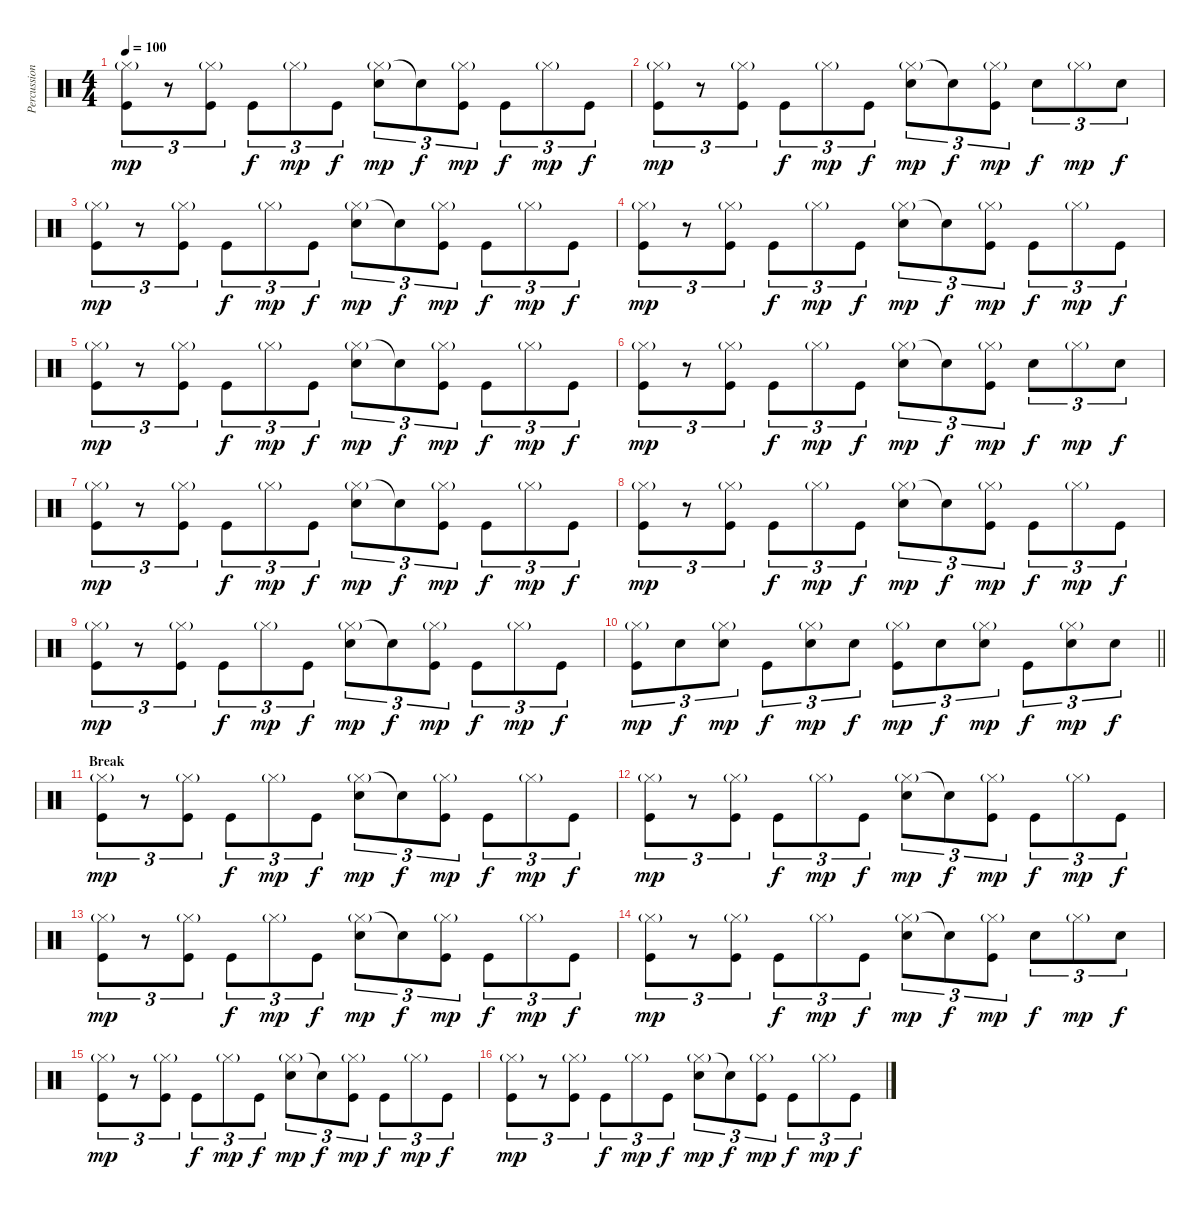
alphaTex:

\track ("Percussions" "Percussion") {instrument percussion}
\staff {score}
\articulation defaults
\ts (4 4)
\tempo 100
\clef neutral
\ks c
("Hi-Hat (closed)"{g} "Kick (hit)").8{tu (3 2) dy mp} r.8{tu (3 2)} ("Hi-Hat (closed)"{g} "Kick (hit)").8{tu (3 2)} "Kick (hit)".8{tu (3 2) dy f} "Hi-Hat (closed)"{g}.8{tu (3 2) dy mp} "Kick (hit)".8{tu (3 2) dy f} ("Hi-Hat (closed)"{g} "Electric Snare (hit)").8{tu (3 2) dy mp} "Snare (hit)"{t}.8{tu (3 2) dy f} ("Hi-Hat (closed)"{g} "Kick (hit)").8{tu (3 2) dy mp} "Kick (hit)".8{tu (3 2) dy f} "Hi-Hat (closed)"{g}.8{tu (3 2) dy mp} "Kick (hit)".8{tu (3 2) dy f} |
("Hi-Hat (closed)"{g} "Kick (hit)").8{tu (3 2) dy mp} r.8{tu (3 2)} ("Hi-Hat (closed)"{g} "Kick (hit)").8{tu (3 2)} "Kick (hit)".8{tu (3 2) dy f} "Hi-Hat (closed)"{g}.8{tu (3 2) dy mp} "Kick (hit)".8{tu (3 2) dy f} ("Hi-Hat (closed)"{g} "Electric Snare (hit)").8{tu (3 2) dy mp} "Snare (hit)"{t}.8{tu (3 2) dy f} ("Hi-Hat (closed)"{g} "Kick (hit)").8{tu (3 2) dy mp} "Electric Snare (hit)".8{tu (3 2) dy f} "Hi-Hat (closed)"{g}.8{tu (3 2) dy mp} "Electric Snare (hit)".8{tu (3 2) dy f} |
("Hi-Hat (closed)"{g} "Kick (hit)").8{tu (3 2) dy mp} r.8{tu (3 2)} ("Hi-Hat (closed)"{g} "Kick (hit)").8{tu (3 2)} "Kick (hit)".8{tu (3 2) dy f} "Hi-Hat (closed)"{g}.8{tu (3 2) dy mp} "Kick (hit)".8{tu (3 2) dy f} ("Hi-Hat (closed)"{g} "Electric Snare (hit)").8{tu (3 2) dy mp} "Snare (hit)"{t}.8{tu (3 2) dy f} ("Hi-Hat (closed)"{g} "Kick (hit)").8{tu (3 2) dy mp} "Kick (hit)".8{tu (3 2) dy f} "Hi-Hat (closed)"{g}.8{tu (3 2) dy mp} "Kick (hit)".8{tu (3 2) dy f} |
("Hi-Hat (closed)"{g} "Kick (hit)").8{tu (3 2) dy mp} r.8{tu (3 2)} ("Hi-Hat (closed)"{g} "Kick (hit)").8{tu (3 2)} "Kick (hit)".8{tu (3 2) dy f} "Hi-Hat (closed)"{g}.8{tu (3 2) dy mp} "Kick (hit)".8{tu (3 2) dy f} ("Hi-Hat (closed)"{g} "Electric Snare (hit)").8{tu (3 2) dy mp} "Snare (hit)"{t}.8{tu (3 2) dy f} ("Hi-Hat (closed)"{g} "Kick (hit)").8{tu (3 2) dy mp} "Kick (hit)".8{tu (3 2) dy f} "Hi-Hat (closed)"{g}.8{tu (3 2) dy mp} "Kick (hit)".8{tu (3 2) dy f} |
("Hi-Hat (closed)"{g} "Kick (hit)").8{tu (3 2) dy mp} r.8{tu (3 2)} ("Hi-Hat (closed)"{g} "Kick (hit)").8{tu (3 2)} "Kick (hit)".8{tu (3 2) dy f} "Hi-Hat (closed)"{g}.8{tu (3 2) dy mp} "Kick (hit)".8{tu (3 2) dy f} ("Hi-Hat (closed)"{g} "Electric Snare (hit)").8{tu (3 2) dy mp} "Snare (hit)"{t}.8{tu (3 2) dy f} ("Hi-Hat (closed)"{g} "Kick (hit)").8{tu (3 2) dy mp} "Kick (hit)".8{tu (3 2) dy f} "Hi-Hat (closed)"{g}.8{tu (3 2) dy mp} "Kick (hit)".8{tu (3 2) dy f} |
("Hi-Hat (closed)"{g} "Kick (hit)").8{tu (3 2) dy mp} r.8{tu (3 2)} ("Hi-Hat (closed)"{g} "Kick (hit)").8{tu (3 2)} "Kick (hit)".8{tu (3 2) dy f} "Hi-Hat (closed)"{g}.8{tu (3 2) dy mp} "Kick (hit)".8{tu (3 2) dy f} ("Hi-Hat (closed)"{g} "Electric Snare (hit)").8{tu (3 2) dy mp} "Snare (hit)"{t}.8{tu (3 2) dy f} ("Hi-Hat (closed)"{g} "Kick (hit)").8{tu (3 2) dy mp} "Electric Snare (hit)".8{tu (3 2) dy f} "Hi-Hat (closed)"{g}.8{tu (3 2) dy mp} "Electric Snare (hit)".8{tu (3 2) dy f} |
("Hi-Hat (closed)"{g} "Kick (hit)").8{tu (3 2) dy mp} r.8{tu (3 2)} ("Hi-Hat (closed)"{g} "Kick (hit)").8{tu (3 2)} "Kick (hit)".8{tu (3 2) dy f} "Hi-Hat (closed)"{g}.8{tu (3 2) dy mp} "Kick (hit)".8{tu (3 2) dy f} ("Hi-Hat (closed)"{g} "Electric Snare (hit)").8{tu (3 2) dy mp} "Snare (hit)"{t}.8{tu (3 2) dy f} ("Hi-Hat (closed)"{g} "Kick (hit)").8{tu (3 2) dy mp} "Kick (hit)".8{tu (3 2) dy f} "Hi-Hat (closed)"{g}.8{tu (3 2) dy mp} "Kick (hit)".8{tu (3 2) dy f} |
("Hi-Hat (closed)"{g} "Kick (hit)").8{tu (3 2) dy mp} r.8{tu (3 2)} ("Hi-Hat (closed)"{g} "Kick (hit)").8{tu (3 2)} "Kick (hit)".8{tu (3 2) dy f} "Hi-Hat (closed)"{g}.8{tu (3 2) dy mp} "Kick (hit)".8{tu (3 2) dy f} ("Hi-Hat (closed)"{g} "Electric Snare (hit)").8{tu (3 2) dy mp} "Snare (hit)"{t}.8{tu (3 2) dy f} ("Hi-Hat (closed)"{g} "Kick (hit)").8{tu (3 2) dy mp} "Kick (hit)".8{tu (3 2) dy f} "Hi-Hat (closed)"{g}.8{tu (3 2) dy mp} "Kick (hit)".8{tu (3 2) dy f} |
("Hi-Hat (closed)"{g} "Kick (hit)").8{tu (3 2) dy mp} r.8{tu (3 2)} ("Hi-Hat (closed)"{g} "Kick (hit)").8{tu (3 2)} "Kick (hit)".8{tu (3 2) dy f} "Hi-Hat (closed)"{g}.8{tu (3 2) dy mp} "Kick (hit)".8{tu (3 2) dy f} ("Hi-Hat (closed)"{g} "Electric Snare (hit)").8{tu (3 2) dy mp} "Snare (hit)"{t}.8{tu (3 2) dy f} ("Hi-Hat (closed)"{g} "Kick (hit)").8{tu (3 2) dy mp} "Kick (hit)".8{tu (3 2) dy f} "Hi-Hat (closed)"{g}.8{tu (3 2) dy mp} "Kick (hit)".8{tu (3 2) dy f} |
\barLineRight lightlight
("Hi-Hat (closed)"{g} "Kick (hit)").8{tu (3 2) dy mp} "Electric Snare (hit)".8{tu (3 2) dy f} ("Hi-Hat (closed)"{g} "Electric Snare (hit)").8{tu (3 2) dy mp} "Kick (hit)".8{tu (3 2) dy f} ("Hi-Hat (closed)"{g} "Electric Snare (hit)").8{tu (3 2) dy mp} "Electric Snare (hit)".8{tu (3 2) dy f} ("Hi-Hat (closed)"{g} "Kick (hit)").8{tu (3 2) dy mp} "Electric Snare (hit)".8{tu (3 2) dy f} ("Hi-Hat (closed)"{g} "Electric Snare (hit)").8{tu (3 2) dy mp} "Kick (hit)".8{tu (3 2) dy f} ("Hi-Hat (closed)"{g} "Electric Snare (hit)").8{tu (3 2) dy mp} "Electric Snare (hit)".8{tu (3 2) dy f} |
\section ("" "Break")
("Hi-Hat (closed)"{g} "Kick (hit)").8{tu (3 2) dy mp} r.8{tu (3 2)} ("Hi-Hat (closed)"{g} "Kick (hit)").8{tu (3 2)} "Kick (hit)".8{tu (3 2) dy f} "Hi-Hat (closed)"{g}.8{tu (3 2) dy mp} "Kick (hit)".8{tu (3 2) dy f} ("Hi-Hat (closed)"{g} "Electric Snare (hit)").8{tu (3 2) dy mp} "Snare (hit)"{t}.8{tu (3 2) dy f} ("Hi-Hat (closed)"{g} "Kick (hit)").8{tu (3 2) dy mp} "Kick (hit)".8{tu (3 2) dy f} "Hi-Hat (closed)"{g}.8{tu (3 2) dy mp} "Kick (hit)".8{tu (3 2) dy f} |
("Hi-Hat (closed)"{g} "Kick (hit)").8{tu (3 2) dy mp} r.8{tu (3 2)} ("Hi-Hat (closed)"{g} "Kick (hit)").8{tu (3 2)} "Kick (hit)".8{tu (3 2) dy f} "Hi-Hat (closed)"{g}.8{tu (3 2) dy mp} "Kick (hit)".8{tu (3 2) dy f} ("Hi-Hat (closed)"{g} "Electric Snare (hit)").8{tu (3 2) dy mp} "Snare (hit)"{t}.8{tu (3 2) dy f} ("Hi-Hat (closed)"{g} "Kick (hit)").8{tu (3 2) dy mp} "Kick (hit)".8{tu (3 2) dy f} "Hi-Hat (closed)"{g}.8{tu (3 2) dy mp} "Kick (hit)".8{tu (3 2) dy f} |
("Hi-Hat (closed)"{g} "Kick (hit)").8{tu (3 2) dy mp} r.8{tu (3 2)} ("Hi-Hat (closed)"{g} "Kick (hit)").8{tu (3 2)} "Kick (hit)".8{tu (3 2) dy f} "Hi-Hat (closed)"{g}.8{tu (3 2) dy mp} "Kick (hit)".8{tu (3 2) dy f} ("Hi-Hat (closed)"{g} "Electric Snare (hit)").8{tu (3 2) dy mp} "Snare (hit)"{t}.8{tu (3 2) dy f} ("Hi-Hat (closed)"{g} "Kick (hit)").8{tu (3 2) dy mp} "Kick (hit)".8{tu (3 2) dy f} "Hi-Hat (closed)"{g}.8{tu (3 2) dy mp} "Kick (hit)".8{tu (3 2) dy f} |
("Hi-Hat (closed)"{g} "Kick (hit)").8{tu (3 2) dy mp} r.8{tu (3 2)} ("Hi-Hat (closed)"{g} "Kick (hit)").8{tu (3 2)} "Kick (hit)".8{tu (3 2) dy f} "Hi-Hat (closed)"{g}.8{tu (3 2) dy mp} "Kick (hit)".8{tu (3 2) dy f} ("Hi-Hat (closed)"{g} "Electric Snare (hit)").8{tu (3 2) dy mp} "Snare (hit)"{t}.8{tu (3 2) dy f} ("Hi-Hat (closed)"{g} "Kick (hit)").8{tu (3 2) dy mp} "Electric Snare (hit)".8{tu (3 2) dy f} "Hi-Hat (closed)"{g}.8{tu (3 2) dy mp} "Electric Snare (hit)".8{tu (3 2) dy f} |
("Hi-Hat (closed)"{g} "Kick (hit)").8{tu (3 2) dy mp} r.8{tu (3 2)} ("Hi-Hat (closed)"{g} "Kick (hit)").8{tu (3 2)} "Kick (hit)".8{tu (3 2) dy f} "Hi-Hat (closed)"{g}.8{tu (3 2) dy mp} "Kick (hit)".8{tu (3 2) dy f} ("Hi-Hat (closed)"{g} "Electric Snare (hit)").8{tu (3 2) dy mp} "Snare (hit)"{t}.8{tu (3 2) dy f} ("Hi-Hat (closed)"{g} "Kick (hit)").8{tu (3 2) dy mp} "Kick (hit)".8{tu (3 2) dy f} "Hi-Hat (closed)"{g}.8{tu (3 2) dy mp} "Kick (hit)".8{tu (3 2) dy f} |
("Hi-Hat (closed)"{g} "Kick (hit)").8{tu (3 2) dy mp} r.8{tu (3 2)} ("Hi-Hat (closed)"{g} "Kick (hit)").8{tu (3 2)} "Kick (hit)".8{tu (3 2) dy f} "Hi-Hat (closed)"{g}.8{tu (3 2) dy mp} "Kick (hit)".8{tu (3 2) dy f} ("Hi-Hat (closed)"{g} "Electric Snare (hit)").8{tu (3 2) dy mp} "Snare (hit)"{t}.8{tu (3 2) dy f} ("Hi-Hat (closed)"{g} "Kick (hit)").8{tu (3 2) dy mp} "Kick (hit)".8{tu (3 2) dy f} "Hi-Hat (closed)"{g}.8{tu (3 2) dy mp} "Kick (hit)".8{tu (3 2) dy f}
